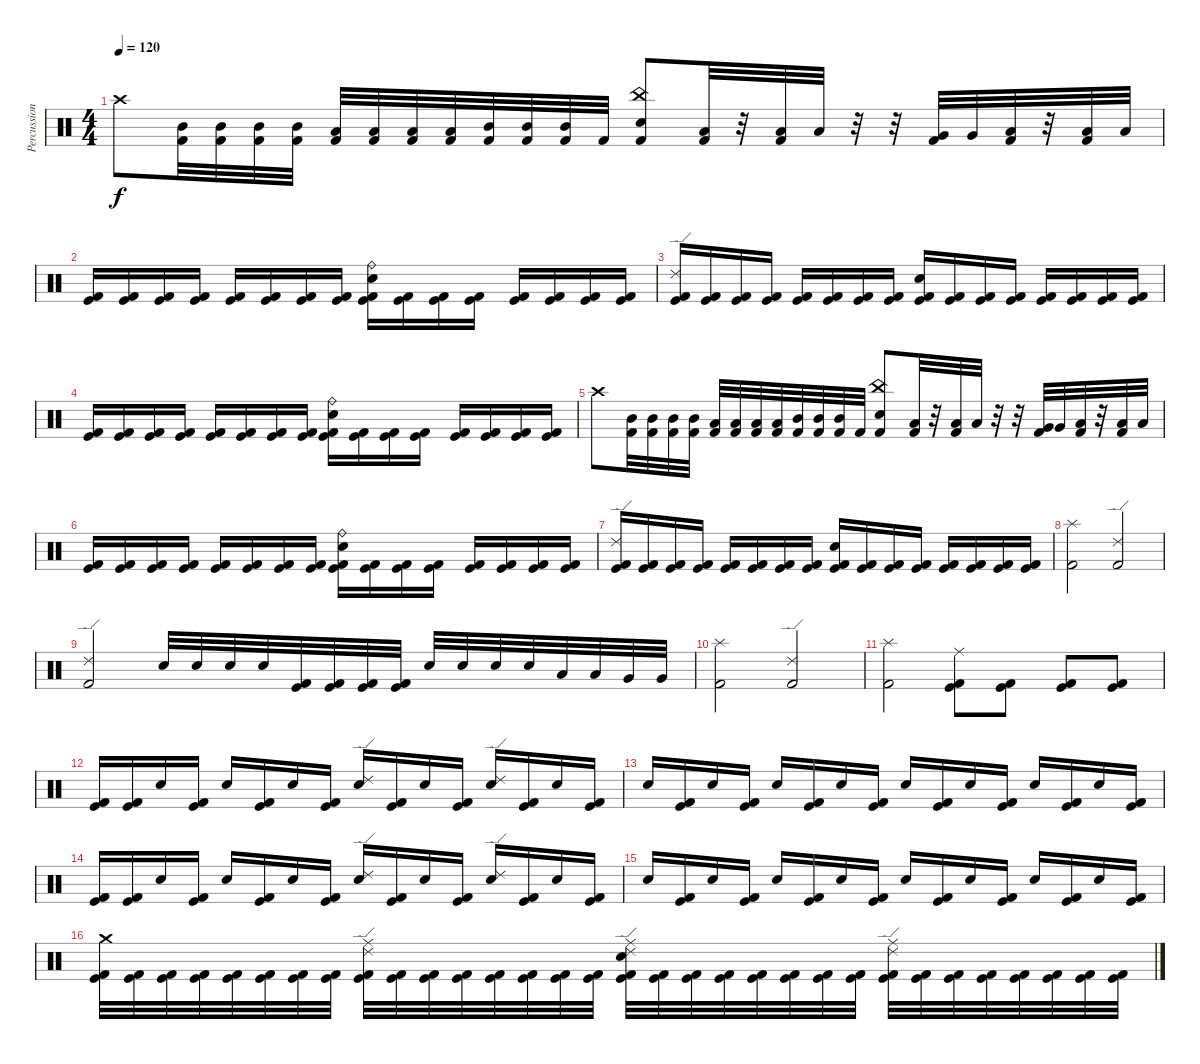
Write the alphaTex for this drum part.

\track ("Percussion" "Percussion") {instrument percussion}
\staff {score}
\articulation defaults
\ts (4 4)
\tempo 120
\clef neutral
\ks c "Crash high (hit)".8{dy f}
("Mid Tom (hit)" "Kick (hit) 2").32 ("Mid Tom (hit)" "Kick (hit) 2").32 ("Mid Tom (hit)" "Kick (hit) 2").32 ("Mid Tom (hit)" "Kick (hit) 2").32 ("Low Tom (hit)" "Kick (hit) 2").32 ("Low Tom (hit)" "Kick (hit) 2").32 ("Low Tom (hit)" "Kick (hit) 2").32 ("Low Tom (hit)" "Kick (hit) 2").32 ("Mid Tom (hit)" "Kick (hit) 2").32 ("Mid Tom (hit)" "Kick (hit) 2").32 ("Mid Tom (hit)" "Kick (hit) 2").32 "Kick (hit) 2".32 ("China (hit)" "Electric Snare (hit)" "Kick (hit) 2").8 ("Low Tom (hit)" "Kick (hit) 2").32 r.32 ("Low Tom (hit)" "Kick (hit) 2").32 "Low Tom (hit)".32 r.32 r.32 ("Very Low Tom (hit)" "Kick (hit) 2").32 "Very Low Tom (hit)".32 ("Low Tom (hit)" "Kick (hit) 2").32 r.32 ("Low Tom (hit)" "Kick (hit) 2").32 "Low Tom (hit)".32 |
("Kick (hit)" "Kick (hit) 2").16 ("Kick (hit)" "Kick (hit) 2").16 ("Kick (hit)" "Kick (hit) 2").16 ("Kick (hit)" "Kick (hit) 2").16 ("Kick (hit)" "Kick (hit) 2").16 ("Kick (hit)" "Kick (hit) 2").16 ("Kick (hit)" "Kick (hit) 2").16 ("Kick (hit)" "Kick (hit) 2").16 ("Kick (hit)" "Ride (bell)" "Electric Snare (hit)" "Kick (hit) 2").16 ("Kick (hit)" "Kick (hit) 2").16 ("Kick (hit)" "Kick (hit) 2").16 ("Kick (hit)" "Kick (hit) 2").16 ("Kick (hit)" "Kick (hit) 2").16 ("Kick (hit)" "Kick (hit) 2").16 ("Kick (hit)" "Kick (hit) 2").16 ("Kick (hit)" "Kick (hit) 2").16 |
("Kick (hit)" "Ride (edge) 2" "Kick (hit) 2").16 ("Kick (hit)" "Kick (hit) 2").16 ("Kick (hit)" "Kick (hit) 2").16 ("Kick (hit)" "Kick (hit) 2").16 ("Kick (hit)" "Kick (hit) 2").16 ("Kick (hit)" "Kick (hit) 2").16 ("Kick (hit)" "Kick (hit) 2").16 ("Kick (hit)" "Kick (hit) 2").16 ("Kick (hit)" "Electric Snare (hit)" "Kick (hit) 2").16 ("Kick (hit)" "Kick (hit) 2").16 ("Kick (hit)" "Kick (hit) 2").16 ("Kick (hit)" "Kick (hit) 2").16 ("Kick (hit)" "Kick (hit) 2").16 ("Kick (hit)" "Kick (hit) 2").16 ("Kick (hit)" "Kick (hit) 2").16 ("Kick (hit)" "Kick (hit) 2").16 |
("Kick (hit)" "Kick (hit) 2").16 ("Kick (hit)" "Kick (hit) 2").16 ("Kick (hit)" "Kick (hit) 2").16 ("Kick (hit)" "Kick (hit) 2").16 ("Kick (hit)" "Kick (hit) 2").16 ("Kick (hit)" "Kick (hit) 2").16 ("Kick (hit)" "Kick (hit) 2").16 ("Kick (hit)" "Kick (hit) 2").16 ("Kick (hit)" "Ride (bell)" "Electric Snare (hit)" "Kick (hit) 2").16 ("Kick (hit)" "Kick (hit) 2").16 ("Kick (hit)" "Kick (hit) 2").16 ("Kick (hit)" "Kick (hit) 2").16 ("Kick (hit)" "Kick (hit) 2").16 ("Kick (hit)" "Kick (hit) 2").16 ("Kick (hit)" "Kick (hit) 2").16 ("Kick (hit)" "Kick (hit) 2").16 |
"Crash high (hit)".8 ("Mid Tom (hit)" "Kick (hit) 2").32 ("Mid Tom (hit)" "Kick (hit) 2").32 ("Mid Tom (hit)" "Kick (hit) 2").32 ("Mid Tom (hit)" "Kick (hit) 2").32 ("Low Tom (hit)" "Kick (hit) 2").32 ("Low Tom (hit)" "Kick (hit) 2").32 ("Low Tom (hit)" "Kick (hit) 2").32 ("Low Tom (hit)" "Kick (hit) 2").32 ("Mid Tom (hit)" "Kick (hit) 2").32 ("Mid Tom (hit)" "Kick (hit) 2").32 ("Mid Tom (hit)" "Kick (hit) 2").32 "Kick (hit) 2".32 ("China (hit)" "Electric Snare (hit)" "Kick (hit) 2").8 ("Low Tom (hit)" "Kick (hit) 2").32 r.32 ("Low Tom (hit)" "Kick (hit) 2").32 "Low Tom (hit)".32 r.32 r.32 ("Very Low Tom (hit)" "Kick (hit) 2").32 "Very Low Tom (hit)".32 ("Low Tom (hit)" "Kick (hit) 2").32 r.32 ("Low Tom (hit)" "Kick (hit) 2").32 "Low Tom (hit)".32 |
("Kick (hit)" "Kick (hit) 2").16 ("Kick (hit)" "Kick (hit) 2").16 ("Kick (hit)" "Kick (hit) 2").16 ("Kick (hit)" "Kick (hit) 2").16 ("Kick (hit)" "Kick (hit) 2").16 ("Kick (hit)" "Kick (hit) 2").16 ("Kick (hit)" "Kick (hit) 2").16 ("Kick (hit)" "Kick (hit) 2").16 ("Kick (hit)" "Ride (bell)" "Electric Snare (hit)" "Kick (hit) 2").16 ("Kick (hit)" "Kick (hit) 2").16 ("Kick (hit)" "Kick (hit) 2").16 ("Kick (hit)" "Kick (hit) 2").16 ("Kick (hit)" "Kick (hit) 2").16 ("Kick (hit)" "Kick (hit) 2").16 ("Kick (hit)" "Kick (hit) 2").16 ("Kick (hit)" "Kick (hit) 2").16 |
("Kick (hit)" "Ride (edge) 2" "Kick (hit) 2").16 ("Kick (hit)" "Kick (hit) 2").16 ("Kick (hit)" "Kick (hit) 2").16 ("Kick (hit)" "Kick (hit) 2").16 ("Kick (hit)" "Kick (hit) 2").16 ("Kick (hit)" "Kick (hit) 2").16 ("Kick (hit)" "Kick (hit) 2").16 ("Kick (hit)" "Kick (hit) 2").16 ("Kick (hit)" "Electric Snare (hit)" "Kick (hit) 2").16 ("Kick (hit)" "Kick (hit) 2").16 ("Kick (hit)" "Kick (hit) 2").16 ("Kick (hit)" "Kick (hit) 2").16 ("Kick (hit)" "Kick (hit) 2").16 ("Kick (hit)" "Kick (hit) 2").16 ("Kick (hit)" "Kick (hit) 2").16 ("Kick (hit)" "Kick (hit) 2").16 |
("Splash (hit)" "Kick (hit) 2").2 ("Ride (edge) 2" "Kick (hit) 2").2 |
("Ride (edge) 2" "Kick (hit) 2").2 "Electric Snare (hit)".32 "Electric Snare (hit)".32 "Electric Snare (hit)".32 "Electric Snare (hit)".32 ("Kick (hit) 2" "Kick (hit)").32 ("Kick (hit) 2" "Kick (hit)").32 ("Kick (hit) 2" "Kick (hit)").32 ("Kick (hit) 2" "Kick (hit)").32 "Electric Snare (hit)".32 "Electric Snare (hit)".32 "Electric Snare (hit)".32 "Electric Snare (hit)".32 "Low Tom (hit)".32 "Low Tom (hit)".32 "Very Low Tom (hit)".32 "Very Low Tom (hit)".32 |
("Splash (hit)" "Kick (hit) 2").2 ("Ride (edge) 2" "Kick (hit) 2").2 |
("Splash (hit)" "Kick (hit) 2").2 ("Ride (middle)" "Kick (hit)" "Kick (hit) 2").8 ("Kick (hit)" "Kick (hit) 2").8 ("Kick (hit)" "Kick (hit) 2").8 ("Kick (hit)" "Kick (hit) 2").8 |
("Kick (hit)" "Kick (hit) 2").16 ("Kick (hit)" "Kick (hit) 2").16 "Electric Snare (hit)".16 ("Kick (hit)" "Kick (hit) 2").16 "Electric Snare (hit)".16 ("Kick (hit)" "Kick (hit) 2").16 "Electric Snare (hit)".16 ("Kick (hit)" "Kick (hit) 2").16 ("Ride (edge) 2" "Electric Snare (hit)").16 ("Kick (hit)" "Kick (hit) 2").16 "Electric Snare (hit)".16 ("Kick (hit)" "Kick (hit) 2").16 ("Ride (edge) 2" "Electric Snare (hit)").16 ("Kick (hit)" "Kick (hit) 2").16 "Electric Snare (hit)".16 ("Kick (hit)" "Kick (hit) 2").16 |
"Electric Snare (hit)".16 ("Kick (hit)" "Kick (hit) 2").16 "Electric Snare (hit)".16 ("Kick (hit)" "Kick (hit) 2").16 "Electric Snare (hit)".16 ("Kick (hit)" "Kick (hit) 2").16 "Electric Snare (hit)".16 ("Kick (hit)" "Kick (hit) 2").16 "Electric Snare (hit)".16 ("Kick (hit)" "Kick (hit) 2").16 "Electric Snare (hit)".16 ("Kick (hit)" "Kick (hit) 2").16 "Electric Snare (hit)".16 ("Kick (hit)" "Kick (hit) 2").16 "Electric Snare (hit)".16 ("Kick (hit)" "Kick (hit) 2").16 |
("Kick (hit)" "Kick (hit) 2").16 ("Kick (hit)" "Kick (hit) 2").16 "Electric Snare (hit)".16 ("Kick (hit)" "Kick (hit) 2").16 "Electric Snare (hit)".16 ("Kick (hit)" "Kick (hit) 2").16 "Electric Snare (hit)".16 ("Kick (hit)" "Kick (hit) 2").16 ("Ride (edge) 2" "Electric Snare (hit)").16 ("Kick (hit)" "Kick (hit) 2").16 "Electric Snare (hit)".16 ("Kick (hit)" "Kick (hit) 2").16 ("Ride (edge) 2" "Electric Snare (hit)").16 ("Kick (hit)" "Kick (hit) 2").16 "Electric Snare (hit)".16 ("Kick (hit)" "Kick (hit) 2").16 |
"Electric Snare (hit)".16 ("Kick (hit)" "Kick (hit) 2").16 "Electric Snare (hit)".16 ("Kick (hit)" "Kick (hit) 2").16 "Electric Snare (hit)".16 ("Kick (hit)" "Kick (hit) 2").16 "Electric Snare (hit)".16 ("Kick (hit)" "Kick (hit) 2").16 "Electric Snare (hit)".16 ("Kick (hit)" "Kick (hit) 2").16 "Electric Snare (hit)".16 ("Kick (hit)" "Kick (hit) 2").16 "Electric Snare (hit)".16 ("Kick (hit)" "Kick (hit) 2").16 "Electric Snare (hit)".16 ("Kick (hit)" "Kick (hit) 2").16 |
("Crash medium (hit)" "Kick (hit) 2" "Kick (hit)").32 ("Kick (hit) 2" "Kick (hit)").32 ("Kick (hit) 2" "Kick (hit)").32 ("Kick (hit) 2" "Kick (hit)").32 ("Kick (hit) 2" "Kick (hit)").32 ("Kick (hit) 2" "Kick (hit)").32 ("Kick (hit) 2" "Kick (hit)").32 ("Kick (hit) 2" "Kick (hit)").32 ("Ride (edge) 2" "Ride (middle)" "Kick (hit) 2" "Kick (hit)").32 ("Kick (hit) 2" "Kick (hit)").32 ("Kick (hit) 2" "Kick (hit)").32 ("Kick (hit) 2" "Kick (hit)").32 ("Kick (hit) 2" "Kick (hit)").32 ("Kick (hit) 2" "Kick (hit)").32 ("Kick (hit) 2" "Kick (hit)").32 ("Kick (hit) 2" "Kick (hit)").32 ("Ride (edge) 2" "Electric Snare (hit)" "Ride (middle)" "Kick (hit) 2" "Kick (hit)").32 ("Kick (hit) 2" "Kick (hit)").32 ("Kick (hit) 2" "Kick (hit)").32 ("Kick (hit) 2" "Kick (hit)").32 ("Kick (hit) 2" "Kick (hit)").32 ("Kick (hit) 2" "Kick (hit)").32 ("Kick (hit) 2" "Kick (hit)").32 ("Kick (hit) 2" "Kick (hit)").32 ("Ride (edge) 2" "Ride (middle)" "Kick (hit) 2" "Kick (hit)").32 ("Kick (hit) 2" "Kick (hit)").32 ("Kick (hit) 2" "Kick (hit)").32 ("Kick (hit) 2" "Kick (hit)").32 ("Kick (hit) 2" "Kick (hit)").32 ("Kick (hit) 2" "Kick (hit)").32 ("Kick (hit) 2" "Kick (hit)").32 ("Kick (hit) 2" "Kick (hit)").32
